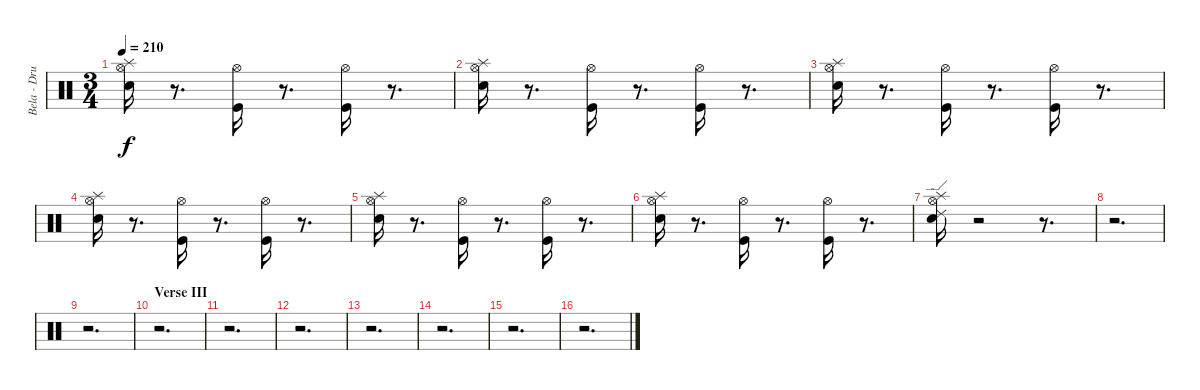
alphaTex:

\track ("Bela - Drums" "Bela - Dru") {instrument percussion}
\staff {score}
\articulation defaults
\ts (3 4)
\tempo 210
\clef neutral
\ks c
("Hi-Hat (open)" "Electric Snare (hit)" "Splash (hit)").16{dy f} r.8{d} ("Kick (hit)" "Hi-Hat (open)").16 r.8{d} ("Kick (hit)" "Hi-Hat (open)").16 r.8{d} |
("Hi-Hat (open)" "Electric Snare (hit)" "Splash (hit)").16 r.8{d} ("Kick (hit)" "Hi-Hat (open)").16 r.8{d} ("Kick (hit)" "Hi-Hat (open)").16 r.8{d} |
("Hi-Hat (open)" "Electric Snare (hit)" "Splash (hit)").16 r.8{d} ("Kick (hit)" "Hi-Hat (open)").16 r.8{d} ("Kick (hit)" "Hi-Hat (open)").16 r.8{d} |
("Hi-Hat (open)" "Electric Snare (hit)" "Splash (hit)").16 r.8{d} ("Kick (hit)" "Hi-Hat (open)").16 r.8{d} ("Kick (hit)" "Hi-Hat (open)").16 r.8{d} |
("Hi-Hat (open)" "Electric Snare (hit)" "Splash (hit)").16 r.8{d} ("Kick (hit)" "Hi-Hat (open)").16 r.8{d} ("Kick (hit)" "Hi-Hat (open)").16 r.8{d} |
("Hi-Hat (open)" "Electric Snare (hit)" "Splash (hit)").16 r.8{d} ("Kick (hit)" "Hi-Hat (open)").16 r.8{d} ("Kick (hit)" "Hi-Hat (open)").16 r.8{d} |
("Hi-Hat (open)" "Electric Snare (hit)" "Splash (hit)" "Ride (edge) 2").16 r.2 r.8{d} |
r.2{d} |
r.2{d} |
\section ("" "Verse III")
r.2{d} |
r.2{d} |
r.2{d} |
r.2{d} |
r.2{d} |
r.2{d} |
r.2{d}
